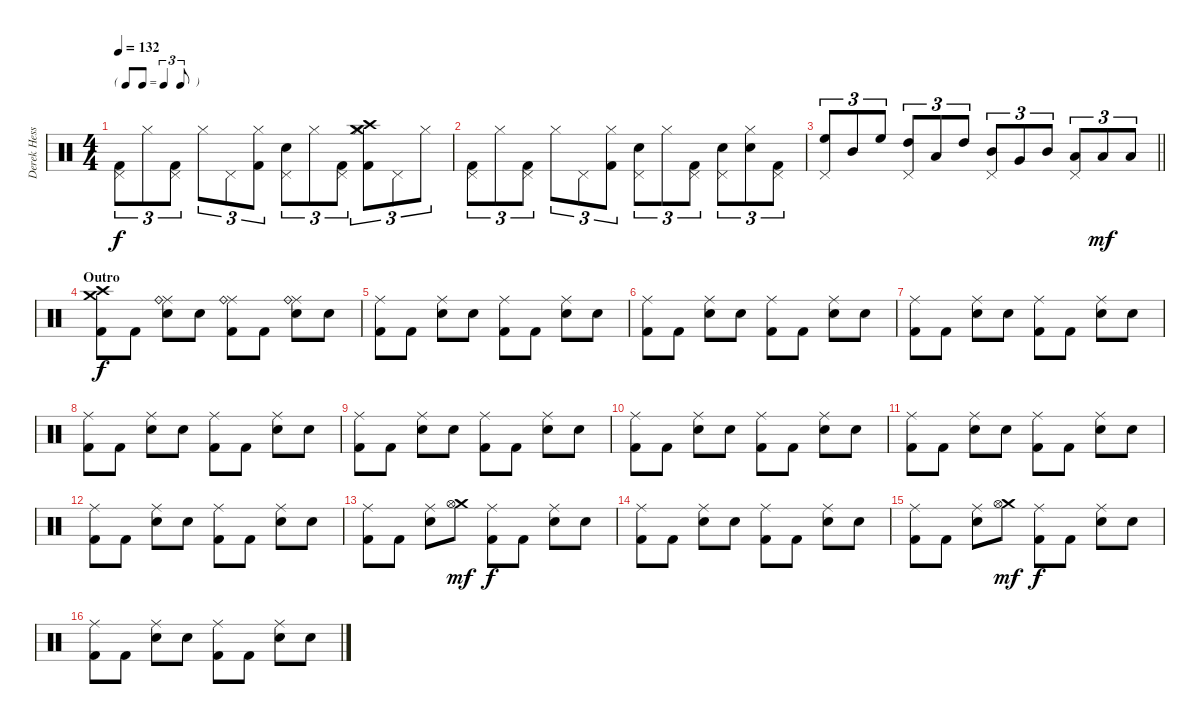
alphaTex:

\track ("Derek Hess (Drums and Percussion)" "Derek Hess") {instrument percussion}
\staff {score}
\articulation defaults
\ts (4 4)
\tf triplet8th
\tempo 132
\clef neutral
\ks c
("Pedal Hi-Hat (hit)" "Kick (hit) 2").8{tu (3 2) dy f} "Hi-Hat (closed)".8{tu (3 2)} ("Pedal Hi-Hat (hit)" "Kick (hit) 2").8{tu (3 2)} "Hi-Hat (closed)".8{tu (3 2)} "Pedal Hi-Hat (hit)".8{tu (3 2)} ("Hi-Hat (closed)" "Kick (hit) 2").8{tu (3 2)} ("Snare (hit) 2" "Pedal Hi-Hat (hit)").8{tu (3 2)} "Hi-Hat (closed)".8{tu (3 2)} ("Pedal Hi-Hat (hit)" "Kick (hit) 2").8{tu (3 2)} ("Crash medium (hit)" "Crash high (hit)" "Hi-Hat (closed)" "Kick (hit) 2").8{tu (3 2)} "Pedal Hi-Hat (hit)".8{tu (3 2)} "Hi-Hat (closed)".8{tu (3 2)} |
("Pedal Hi-Hat (hit)" "Kick (hit) 2").8{tu (3 2)} "Hi-Hat (closed)".8{tu (3 2)} ("Pedal Hi-Hat (hit)" "Kick (hit) 2").8{tu (3 2)} "Hi-Hat (closed)".8{tu (3 2)} "Pedal Hi-Hat (hit)".8{tu (3 2)} ("Hi-Hat (closed)" "Kick (hit) 2").8{tu (3 2)} ("Snare (hit) 2" "Pedal Hi-Hat (hit)").8{tu (3 2)} "Hi-Hat (closed)".8{tu (3 2)} ("Pedal Hi-Hat (hit)" "Kick (hit) 2").8{tu (3 2)} ("Snare (hit) 2" "Pedal Hi-Hat (hit)").8{tu (3 2)} ("Snare (hit) 2" "Hi-Hat (closed)").8{tu (3 2)} ("Pedal Hi-Hat (hit)" "Kick (hit) 2").8{tu (3 2)} |
\barLineRight lightlight
("Pedal Hi-Hat (hit)" "High Floor Tom (hit)").8{tu (3 2)} "Mid Tom (hit)".8{tu (3 2)} "High Floor Tom (hit)".8{tu (3 2)} ("Pedal Hi-Hat (hit)" "High Tom (hit)").8{tu (3 2)} "Low Tom (hit)".8{tu (3 2)} "High Tom (hit)".8{tu (3 2)} ("Pedal Hi-Hat (hit)" "Mid Tom (hit)").8{tu (3 2)} "Very Low Tom (hit)".8{tu (3 2)} "Mid Tom (hit)".8{tu (3 2)} ("Pedal Hi-Hat (hit)" "Low Tom (hit)").8{tu (3 2)} "Low Floor Tom (hit)".8{tu (3 2) dy mf} "Low Tom (hit)".8{tu (3 2)} |
\section ("" "Outro")
("Crash medium (hit)" "Crash high (hit)" "Kick (hit) 2").8{dy f} "Kick (hit) 2".8 ("Ride (middle)" "Ride (bell)" "Snare (hit) 2").8 "Snare (hit) 2".8 ("Ride (middle)" "Ride (bell)" "Kick (hit) 2").8 "Kick (hit) 2".8 ("Ride (middle)" "Ride (bell)" "Snare (hit) 2").8 "Snare (hit) 2".8 |
("Ride (middle)" "Kick (hit) 2").8 "Kick (hit) 2".8 ("Ride (middle)" "Snare (hit) 2").8 "Snare (hit) 2".8 ("Ride (middle)" "Kick (hit) 2").8 "Kick (hit) 2".8 ("Ride (middle)" "Snare (hit) 2").8 "Snare (hit) 2".8 |
("Ride (middle)" "Kick (hit) 2").8 "Kick (hit) 2".8 ("Ride (middle)" "Snare (hit) 2").8 "Snare (hit) 2".8 ("Ride (middle)" "Kick (hit) 2").8 "Kick (hit) 2".8 ("Ride (middle)" "Snare (hit) 2").8 "Snare (hit) 2".8 |
("Ride (middle)" "Kick (hit) 2").8 "Kick (hit) 2".8 ("Ride (middle)" "Snare (hit) 2").8 "Snare (hit) 2".8 ("Ride (middle)" "Kick (hit) 2").8 "Kick (hit) 2".8 ("Ride (middle)" "Snare (hit) 2").8 "Snare (hit) 2".8 |
("Ride (middle)" "Kick (hit) 2").8 "Kick (hit) 2".8 ("Ride (middle)" "Snare (hit) 2").8 "Snare (hit) 2".8 ("Ride (middle)" "Kick (hit) 2").8 "Kick (hit) 2".8 ("Ride (middle)" "Snare (hit) 2").8 "Snare (hit) 2".8 |
("Ride (middle)" "Kick (hit) 2").8 "Kick (hit) 2".8 ("Ride (middle)" "Snare (hit) 2").8 "Snare (hit) 2".8 ("Ride (middle)" "Kick (hit) 2").8 "Kick (hit) 2".8 ("Ride (middle)" "Snare (hit) 2").8 "Snare (hit) 2".8 |
("Ride (middle)" "Kick (hit) 2").8 "Kick (hit) 2".8 ("Ride (middle)" "Snare (hit) 2").8 "Snare (hit) 2".8 ("Ride (middle)" "Kick (hit) 2").8 "Kick (hit) 2".8 ("Ride (middle)" "Snare (hit) 2").8 "Snare (hit) 2".8 |
("Ride (middle)" "Kick (hit) 2").8 "Kick (hit) 2".8 ("Ride (middle)" "Snare (hit) 2").8 "Snare (hit) 2".8 ("Ride (middle)" "Kick (hit) 2").8 "Kick (hit) 2".8 ("Ride (middle)" "Snare (hit) 2").8 "Snare (hit) 2".8 |
("Ride (middle)" "Kick (hit) 2").8 "Kick (hit) 2".8 ("Ride (middle)" "Snare (hit) 2").8 "Snare (hit) 2".8 ("Ride (middle)" "Kick (hit) 2").8 "Kick (hit) 2".8 ("Ride (middle)" "Snare (hit) 2").8 "Snare (hit) 2".8 |
("Ride (middle)" "Kick (hit) 2").8 "Kick (hit) 2".8 ("Ride (middle)" "Snare (hit) 2").8 ("Crash medium (hit)" "Hi-Hat (open)").8{dy mf} ("Ride (middle)" "Kick (hit) 2").8{dy f} "Kick (hit) 2".8 ("Ride (middle)" "Snare (hit) 2").8 "Snare (hit) 2".8 |
("Ride (middle)" "Kick (hit) 2").8 "Kick (hit) 2".8 ("Ride (middle)" "Snare (hit) 2").8 "Snare (hit) 2".8 ("Ride (middle)" "Kick (hit) 2").8 "Kick (hit) 2".8 ("Ride (middle)" "Snare (hit) 2").8 "Snare (hit) 2".8 |
("Ride (middle)" "Kick (hit) 2").8 "Kick (hit) 2".8 ("Ride (middle)" "Snare (hit) 2").8 ("Crash medium (hit)" "Hi-Hat (open)").8{dy mf} ("Ride (middle)" "Kick (hit) 2").8{dy f} "Kick (hit) 2".8 ("Ride (middle)" "Snare (hit) 2").8 "Snare (hit) 2".8 |
("Ride (middle)" "Kick (hit) 2").8 "Kick (hit) 2".8 ("Ride (middle)" "Snare (hit) 2").8 "Snare (hit) 2".8 ("Ride (middle)" "Kick (hit) 2").8 "Kick (hit) 2".8 ("Ride (middle)" "Snare (hit) 2").8 "Snare (hit) 2".8
